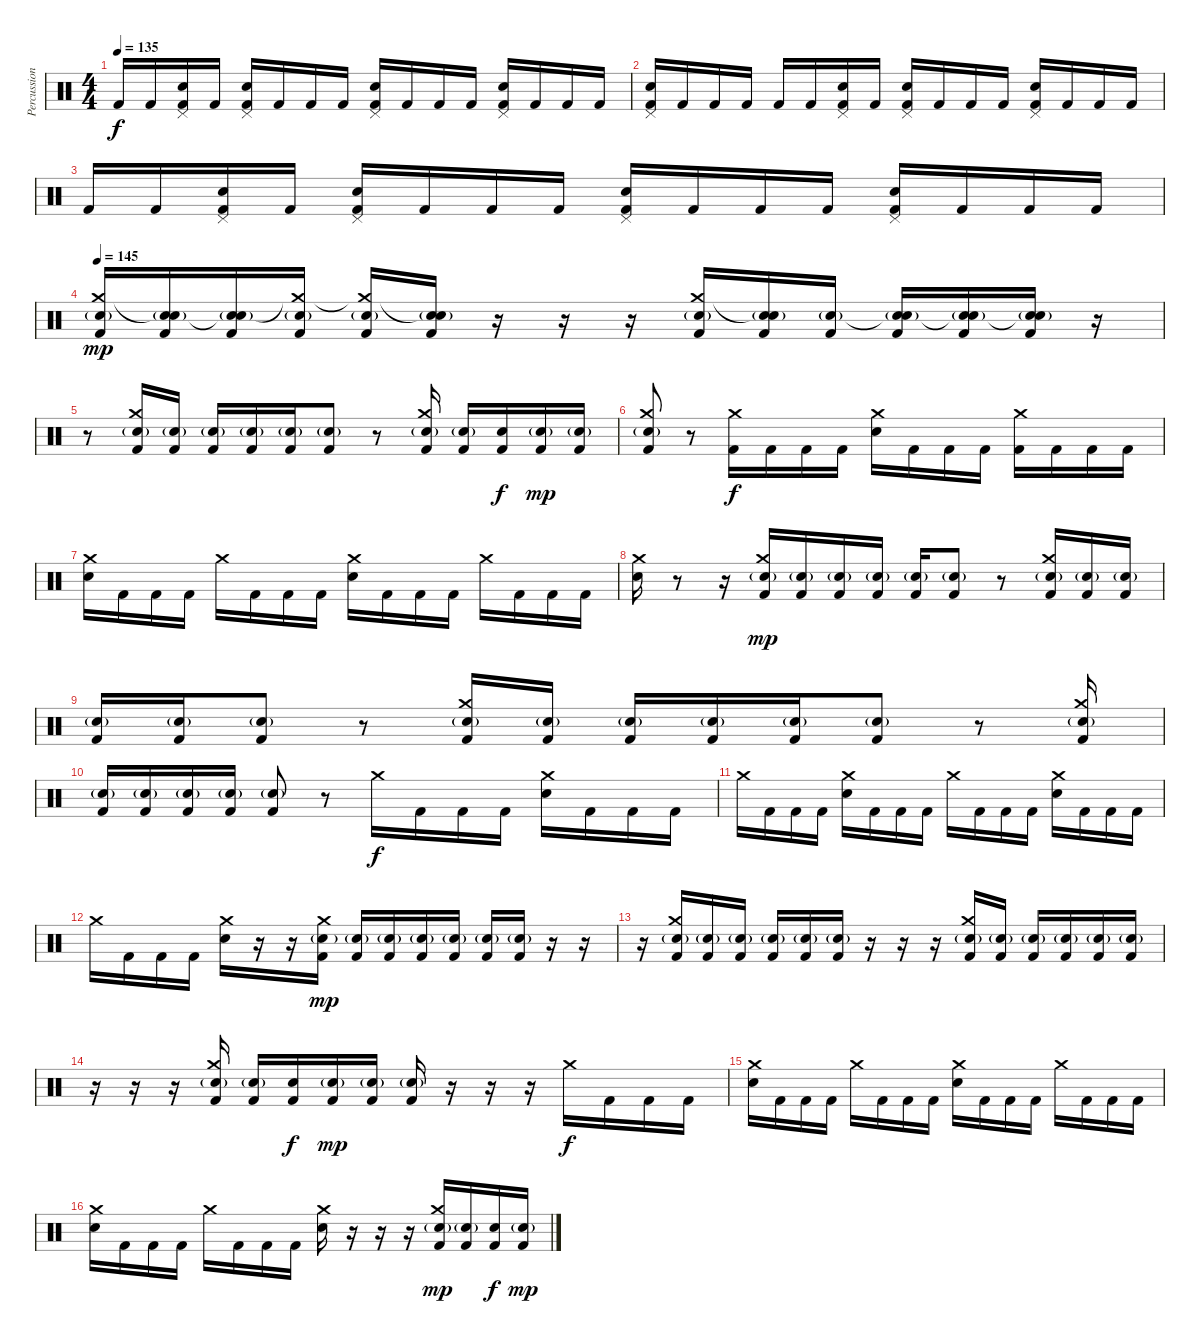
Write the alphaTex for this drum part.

\track ("Percussion" "Percussion") {instrument percussion}
\staff {score}
\articulation defaults
\ts (4 4)
\tempo 135
\clef neutral
\ks c "Kick (hit) 2".16{dy f} "Kick (hit) 2".16
("Pedal Hi-Hat (hit)" "Electric Snare (hit)" "Kick (hit) 2").16 "Kick (hit) 2".16 ("Pedal Hi-Hat (hit)" "Electric Snare (hit)" "Kick (hit) 2").16 "Kick (hit) 2".16 "Kick (hit) 2".16 "Kick (hit) 2".16 ("Pedal Hi-Hat (hit)" "Electric Snare (hit)" "Kick (hit) 2").16 "Kick (hit) 2".16 "Kick (hit) 2".16 "Kick (hit) 2".16 ("Pedal Hi-Hat (hit)" "Electric Snare (hit)" "Kick (hit) 2").16 "Kick (hit) 2".16 "Kick (hit) 2".16 "Kick (hit) 2".16 |
("Pedal Hi-Hat (hit)" "Electric Snare (hit)" "Kick (hit) 2").16 "Kick (hit) 2".16 "Kick (hit) 2".16 "Kick (hit) 2".16 "Kick (hit) 2".16 "Kick (hit) 2".16 ("Pedal Hi-Hat (hit)" "Electric Snare (hit)" "Kick (hit) 2").16 "Kick (hit) 2".16 ("Pedal Hi-Hat (hit)" "Electric Snare (hit)" "Kick (hit) 2").16 "Kick (hit) 2".16 "Kick (hit) 2".16 "Kick (hit) 2".16 ("Pedal Hi-Hat (hit)" "Electric Snare (hit)" "Kick (hit) 2").16 "Kick (hit) 2".16 "Kick (hit) 2".16 "Kick (hit) 2".16 |
"Kick (hit) 2".16 "Kick (hit) 2".16 ("Pedal Hi-Hat (hit)" "Electric Snare (hit)" "Kick (hit) 2").16 "Kick (hit) 2".16 ("Pedal Hi-Hat (hit)" "Electric Snare (hit)" "Kick (hit) 2").16 "Kick (hit) 2".16 "Kick (hit) 2".16 "Kick (hit) 2".16 ("Pedal Hi-Hat (hit)" "Electric Snare (hit)" "Kick (hit) 2").16 "Kick (hit) 2".16 "Kick (hit) 2".16 "Kick (hit) 2".16 ("Pedal Hi-Hat (hit)" "Electric Snare (hit)" "Kick (hit) 2").16 "Kick (hit) 2".16 "Kick (hit) 2".16 "Kick (hit) 2".16 |
\tempo 145
("Crash medium (hit)" "Snare (hit) 2"{g} "Kick (hit) 2").16{dy mp} ("Snare (hit)"{t} "Snare (hit) 2"{g} "Kick (hit) 2").16 ("Snare (hit)"{t} "Snare (hit) 2"{g} "Kick (hit) 2").16 ("Crash medium (hit)"{t} "Snare (hit) 2"{g} "Kick (hit) 2").16 ("Crash medium (hit)"{t} "Snare (hit) 2"{g} "Kick (hit) 2").16 ("Snare (hit)"{t} "Snare (hit) 2"{g} "Kick (hit) 2").16 r.16 r.16 r.16 ("Crash medium (hit)" "Snare (hit) 2"{g} "Kick (hit) 2").16 ("Snare (hit)"{t} "Snare (hit) 2"{g} "Kick (hit) 2").16 ("Snare (hit) 2"{g} "Kick (hit) 2").16 ("Snare (hit)"{t} "Snare (hit) 2"{g} "Kick (hit) 2").16 ("Snare (hit)"{t} "Snare (hit) 2"{g} "Kick (hit) 2").16 ("Snare (hit)"{t} "Snare (hit) 2"{g} "Kick (hit) 2").16 r.16 |
r.8 ("Crash medium (hit)" "Snare (hit) 2"{g} "Kick (hit) 2").16 ("Snare (hit) 2"{g} "Kick (hit) 2").16 ("Snare (hit) 2"{g} "Kick (hit) 2").16 ("Snare (hit) 2"{g} "Kick (hit) 2").16 ("Snare (hit) 2"{g} "Kick (hit) 2").16 ("Snare (hit) 2"{g} "Kick (hit) 2").8 r.8 ("Crash medium (hit)" "Snare (hit) 2"{g} "Kick (hit) 2").16 ("Snare (hit) 2"{g} "Kick (hit) 2").16 ("Snare (hit) 2" "Kick (hit) 2").16{dy f} ("Snare (hit) 2"{g} "Kick (hit) 2").16{dy mp} ("Snare (hit) 2"{g} "Kick (hit) 2").16 |
("Crash medium (hit)" "Snare (hit) 2"{g} "Kick (hit) 2").8 r.8 ("Crash medium (hit)" "Kick (hit) 2").16{dy f} "Kick (hit) 2".16 "Kick (hit) 2".16 "Kick (hit) 2".16 ("Crash medium (hit)" "Electric Snare (hit)").16 "Kick (hit) 2".16 "Kick (hit) 2".16 "Kick (hit) 2".16 ("Crash medium (hit)" "Kick (hit) 2").16 "Kick (hit) 2".16 "Kick (hit) 2".16 "Kick (hit) 2".16 |
("Crash medium (hit)" "Electric Snare (hit)").16 "Kick (hit) 2".16 "Kick (hit) 2".16 "Kick (hit) 2".16 "Crash medium (hit)".16 "Kick (hit) 2".16 "Kick (hit) 2".16 "Kick (hit) 2".16 ("Crash medium (hit)" "Electric Snare (hit)").16 "Kick (hit) 2".16 "Kick (hit) 2".16 "Kick (hit) 2".16 "Crash medium (hit)".16 "Kick (hit) 2".16 "Kick (hit) 2".16 "Kick (hit) 2".16 |
("Crash medium (hit)" "Electric Snare (hit)").16 r.8 r.16 ("Crash medium (hit)" "Snare (hit) 2"{g} "Kick (hit) 2").16{dy mp} ("Snare (hit) 2"{g} "Kick (hit) 2").16 ("Snare (hit) 2"{g} "Kick (hit) 2").16 ("Snare (hit) 2"{g} "Kick (hit) 2").16 ("Snare (hit) 2"{g} "Kick (hit) 2").16 ("Snare (hit) 2"{g} "Kick (hit) 2").8 r.8 ("Crash medium (hit)" "Snare (hit) 2"{g} "Kick (hit) 2").16 ("Snare (hit) 2"{g} "Kick (hit) 2").16 ("Snare (hit) 2"{g} "Kick (hit) 2").16 |
("Snare (hit) 2"{g} "Kick (hit) 2").16 ("Snare (hit) 2"{g} "Kick (hit) 2").16 ("Snare (hit) 2"{g} "Kick (hit) 2").8 r.8 ("Crash medium (hit)" "Snare (hit) 2"{g} "Kick (hit) 2").16 ("Snare (hit) 2"{g} "Kick (hit) 2").16 ("Snare (hit) 2"{g} "Kick (hit) 2").16 ("Snare (hit) 2"{g} "Kick (hit) 2").16 ("Snare (hit) 2"{g} "Kick (hit) 2").16 ("Snare (hit) 2"{g} "Kick (hit) 2").8 r.8 ("Crash medium (hit)" "Snare (hit) 2"{g} "Kick (hit) 2").16 |
("Snare (hit) 2"{g} "Kick (hit) 2").16 ("Snare (hit) 2"{g} "Kick (hit) 2").16 ("Snare (hit) 2"{g} "Kick (hit) 2").16 ("Snare (hit) 2"{g} "Kick (hit) 2").16 ("Snare (hit) 2"{g} "Kick (hit) 2").8 r.8 "Crash medium (hit)".16{dy f} "Kick (hit) 2".16 "Kick (hit) 2".16 "Kick (hit) 2".16 ("Crash medium (hit)" "Electric Snare (hit)").16 "Kick (hit) 2".16 "Kick (hit) 2".16 "Kick (hit) 2".16 |
"Crash medium (hit)".16 "Kick (hit) 2".16 "Kick (hit) 2".16 "Kick (hit) 2".16 ("Crash medium (hit)" "Electric Snare (hit)").16 "Kick (hit) 2".16 "Kick (hit) 2".16 "Kick (hit) 2".16 "Crash medium (hit)".16 "Kick (hit) 2".16 "Kick (hit) 2".16 "Kick (hit) 2".16 ("Crash medium (hit)" "Electric Snare (hit)").16 "Kick (hit) 2".16 "Kick (hit) 2".16 "Kick (hit) 2".16 |
"Crash medium (hit)".16 "Kick (hit) 2".16 "Kick (hit) 2".16 "Kick (hit) 2".16 ("Crash medium (hit)" "Electric Snare (hit)").16 r.16 r.16 ("Crash medium (hit)" "Snare (hit) 2"{g} "Kick (hit) 2").16{dy mp} ("Snare (hit) 2"{g} "Kick (hit) 2").16 ("Snare (hit) 2"{g} "Kick (hit) 2").16 ("Snare (hit) 2"{g} "Kick (hit) 2").16 ("Snare (hit) 2"{g} "Kick (hit) 2").16 ("Snare (hit) 2"{g} "Kick (hit) 2").16 ("Snare (hit) 2"{g} "Kick (hit) 2").16 r.16 r.16 |
r.16 ("Crash medium (hit)" "Snare (hit) 2"{g} "Kick (hit) 2").16 ("Snare (hit) 2"{g} "Kick (hit) 2").16 ("Snare (hit) 2"{g} "Kick (hit) 2").16 ("Snare (hit) 2"{g} "Kick (hit) 2").16 ("Snare (hit) 2"{g} "Kick (hit) 2").16 ("Snare (hit) 2"{g} "Kick (hit) 2").16 r.16 r.16 r.16 ("Crash medium (hit)" "Snare (hit) 2"{g} "Kick (hit) 2").16 ("Snare (hit) 2"{g} "Kick (hit) 2").16 ("Snare (hit) 2"{g} "Kick (hit) 2").16 ("Snare (hit) 2"{g} "Kick (hit) 2").16 ("Snare (hit) 2"{g} "Kick (hit) 2").16 ("Snare (hit) 2"{g} "Kick (hit) 2").16 |
r.16 r.16 r.16 ("Crash medium (hit)" "Snare (hit) 2"{g} "Kick (hit) 2").16 ("Snare (hit) 2"{g} "Kick (hit) 2").16 ("Snare (hit) 2" "Kick (hit) 2").16{dy f} ("Snare (hit) 2"{g} "Kick (hit) 2").16{dy mp} ("Snare (hit) 2"{g} "Kick (hit) 2").16 ("Snare (hit) 2"{g} "Kick (hit) 2").16 r.16 r.16 r.16 "Crash medium (hit)".16{dy f} "Kick (hit) 2".16 "Kick (hit) 2".16 "Kick (hit) 2".16 |
("Crash medium (hit)" "Electric Snare (hit)").16 "Kick (hit) 2".16 "Kick (hit) 2".16 "Kick (hit) 2".16 "Crash medium (hit)".16 "Kick (hit) 2".16 "Kick (hit) 2".16 "Kick (hit) 2".16 ("Crash medium (hit)" "Electric Snare (hit)").16 "Kick (hit) 2".16 "Kick (hit) 2".16 "Kick (hit) 2".16 "Crash medium (hit)".16 "Kick (hit) 2".16 "Kick (hit) 2".16 "Kick (hit) 2".16 |
("Crash medium (hit)" "Electric Snare (hit)").16 "Kick (hit) 2".16 "Kick (hit) 2".16 "Kick (hit) 2".16 "Crash medium (hit)".16 "Kick (hit) 2".16 "Kick (hit) 2".16 "Kick (hit) 2".16 ("Crash medium (hit)" "Electric Snare (hit)").16 r.16 r.16 r.16 ("Crash medium (hit)" "Snare (hit) 2"{g} "Kick (hit) 2").16{dy mp} ("Snare (hit) 2"{g} "Kick (hit) 2").16 ("Snare (hit) 2" "Kick (hit) 2").16{dy f} ("Snare (hit) 2"{g} "Kick (hit) 2").16{dy mp}
